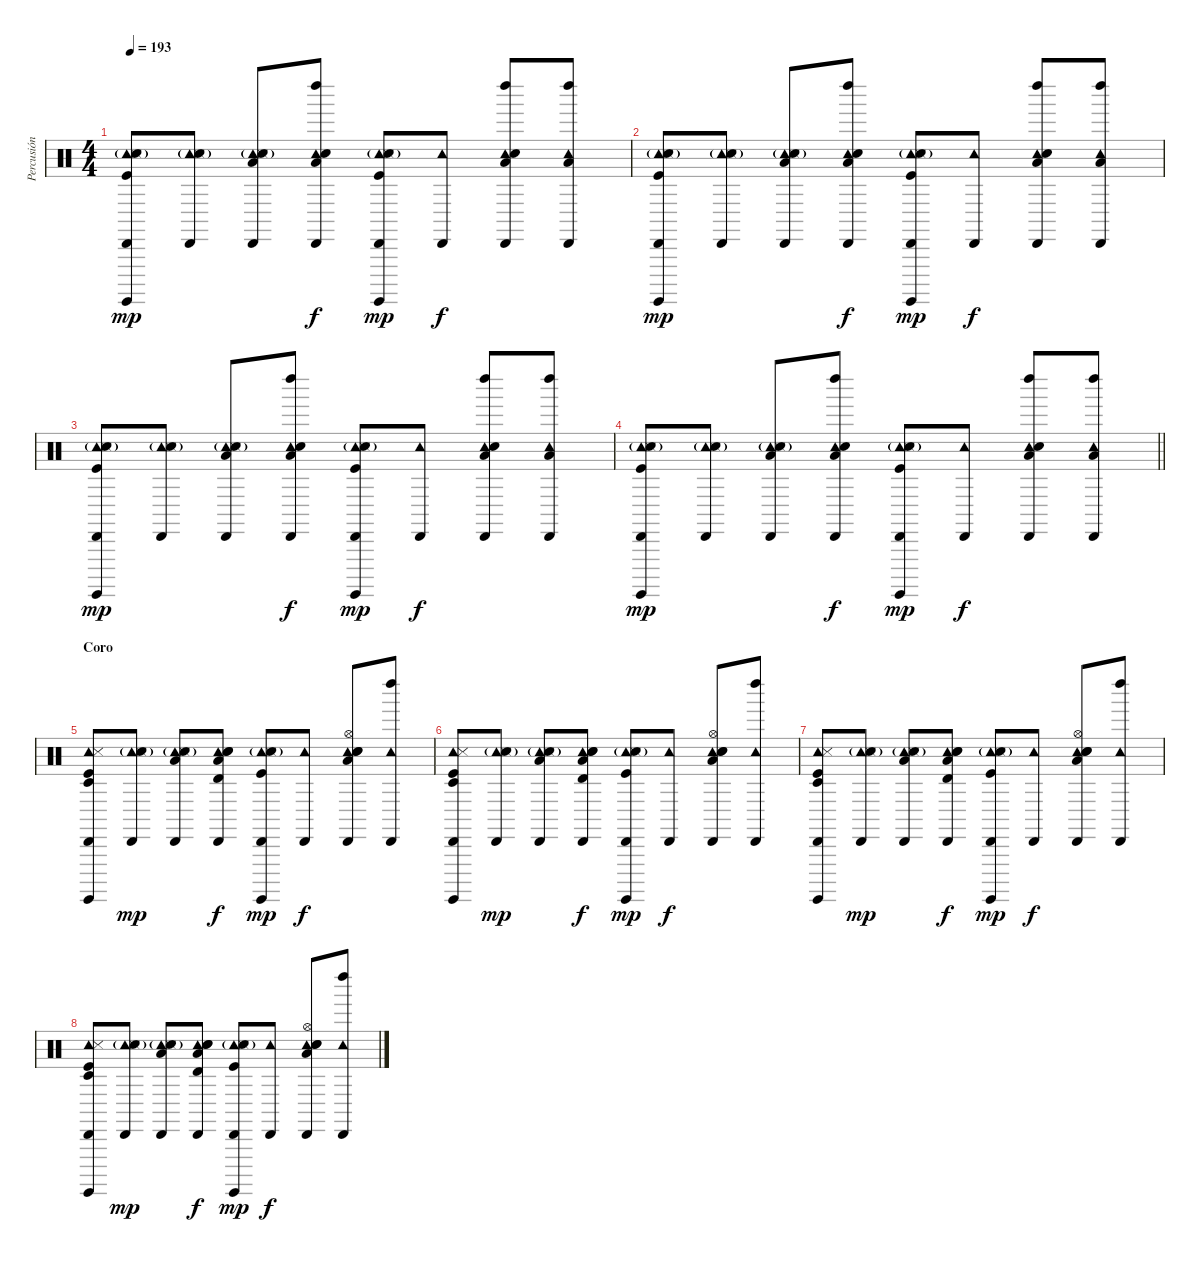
\track ("Percusión" "Percusión") {instrument percussion}
\staff {score}
\articulation defaults
\ts (4 4)
\tempo 193
\clef neutral
\ks c
("Cabasa (hit)" "Tambourine (hit)" "Hand Clap (hit)"{g} "Metronome (hit)" "Surdo (hit)" "Kick (hit)").8{dy mp} ("Cabasa (hit)" "Tambourine (hit)" "Hand Clap (hit)"{g} "Metronome (hit)").8 ("Cabasa (hit)" "Tambourine (hit)" "Hand Clap (hit)"{g} "Metronome (hit)" "Low Tom (hit)").8 ("Cabasa (hit)" "Tambourine (hit)" "Left Maraca (hit)" "Low Tom (hit)" "Electric Snare (hit)").8{dy f} ("Cabasa (hit)" "Tambourine (hit)" "Hand Clap (hit)"{g} "Metronome (hit)" "Surdo (hit)" "Kick (hit)").8{dy mp} ("Cabasa (hit)" "Tambourine (hit)").8{dy f} ("Cabasa (hit)" "Tambourine (hit)" "Left Maraca (hit)" "Low Tom (hit)" "Electric Snare (hit)").8 ("Cabasa (hit)" "Tambourine (hit)" "Left Maraca (hit)" "Low Tom (hit)").8 |
("Cabasa (hit)" "Tambourine (hit)" "Hand Clap (hit)"{g} "Metronome (hit)" "Surdo (hit)" "Kick (hit)").8{dy mp} ("Cabasa (hit)" "Tambourine (hit)" "Hand Clap (hit)"{g} "Metronome (hit)").8 ("Cabasa (hit)" "Tambourine (hit)" "Hand Clap (hit)"{g} "Metronome (hit)" "Low Tom (hit)").8 ("Cabasa (hit)" "Tambourine (hit)" "Left Maraca (hit)" "Low Tom (hit)" "Electric Snare (hit)").8{dy f} ("Cabasa (hit)" "Tambourine (hit)" "Hand Clap (hit)"{g} "Metronome (hit)" "Surdo (hit)" "Kick (hit)").8{dy mp} ("Cabasa (hit)" "Tambourine (hit)").8{dy f} ("Cabasa (hit)" "Tambourine (hit)" "Left Maraca (hit)" "Low Tom (hit)" "Electric Snare (hit)").8 ("Cabasa (hit)" "Tambourine (hit)" "Left Maraca (hit)" "Low Tom (hit)").8 |
("Cabasa (hit)" "Tambourine (hit)" "Hand Clap (hit)"{g} "Metronome (hit)" "Surdo (hit)" "Kick (hit)").8{dy mp} ("Cabasa (hit)" "Tambourine (hit)" "Hand Clap (hit)"{g} "Metronome (hit)").8 ("Cabasa (hit)" "Tambourine (hit)" "Hand Clap (hit)"{g} "Metronome (hit)" "Low Tom (hit)").8 ("Cabasa (hit)" "Tambourine (hit)" "Left Maraca (hit)" "Low Tom (hit)" "Electric Snare (hit)").8{dy f} ("Cabasa (hit)" "Tambourine (hit)" "Hand Clap (hit)"{g} "Metronome (hit)" "Surdo (hit)" "Kick (hit)").8{dy mp} ("Cabasa (hit)" "Tambourine (hit)").8{dy f} ("Cabasa (hit)" "Tambourine (hit)" "Left Maraca (hit)" "Low Tom (hit)" "Electric Snare (hit)").8 ("Cabasa (hit)" "Tambourine (hit)" "Left Maraca (hit)" "Low Tom (hit)").8 |
\barLineRight lightlight
("Cabasa (hit)" "Tambourine (hit)" "Hand Clap (hit)"{g} "Metronome (hit)" "Surdo (hit)" "Kick (hit)").8{dy mp} ("Cabasa (hit)" "Tambourine (hit)" "Hand Clap (hit)"{g} "Metronome (hit)").8 ("Cabasa (hit)" "Tambourine (hit)" "Hand Clap (hit)"{g} "Metronome (hit)" "Low Tom (hit)").8 ("Cabasa (hit)" "Tambourine (hit)" "Left Maraca (hit)" "Low Tom (hit)" "Electric Snare (hit)").8{dy f} ("Cabasa (hit)" "Tambourine (hit)" "Hand Clap (hit)"{g} "Metronome (hit)" "Surdo (hit)" "Kick (hit)").8{dy mp} ("Cabasa (hit)" "Tambourine (hit)").8{dy f} ("Cabasa (hit)" "Tambourine (hit)" "Left Maraca (hit)" "Low Tom (hit)" "Electric Snare (hit)").8 ("Cabasa (hit)" "Tambourine (hit)" "Left Maraca (hit)" "Low Tom (hit)").8 |
\section ("" "Coro")
("Cabasa (hit)" "Tambourine (hit)" "Timbale low (hit)" "Metronome (hit)" "Surdo (hit)" "Kick (hit)").8 ("Cabasa (hit)" "Tambourine (hit)" "Hand Clap (hit)"{g} "Metronome (hit)").8{dy mp} ("Cabasa (hit)" "Tambourine (hit)" "Hand Clap (hit)"{g} "Metronome (hit)" "Low Tom (hit)").8 ("Cabasa (hit)" "Tambourine (hit)" "Timbale high (hit)" "Snare (hit) 2" "Low Tom (hit)" "Electric Snare (hit)").8{dy f} ("Cabasa (hit)" "Tambourine (hit)" "Hand Clap (hit)"{g} "Metronome (hit)" "Surdo (hit)" "Kick (hit)").8{dy mp} ("Cabasa (hit)" "Tambourine (hit)").8{dy f} ("Cabasa (hit)" "Tambourine (hit)" "Hi-Hat (open)" "Snare (hit) 2" "Low Tom (hit)" "Electric Snare (hit)").8 ("Cabasa (hit)" "Tambourine (hit)" "Left Maraca (hit)").8 |
("Cabasa (hit)" "Tambourine (hit)" "Timbale low (hit)" "Metronome (hit)" "Surdo (hit)" "Kick (hit)").8 ("Cabasa (hit)" "Tambourine (hit)" "Hand Clap (hit)"{g} "Metronome (hit)").8{dy mp} ("Cabasa (hit)" "Tambourine (hit)" "Hand Clap (hit)"{g} "Metronome (hit)" "Low Tom (hit)").8 ("Cabasa (hit)" "Tambourine (hit)" "Timbale high (hit)" "Snare (hit) 2" "Low Tom (hit)" "Electric Snare (hit)").8{dy f} ("Cabasa (hit)" "Tambourine (hit)" "Hand Clap (hit)"{g} "Metronome (hit)" "Surdo (hit)" "Kick (hit)").8{dy mp} ("Cabasa (hit)" "Tambourine (hit)").8{dy f} ("Cabasa (hit)" "Tambourine (hit)" "Hi-Hat (open)" "Snare (hit) 2" "Low Tom (hit)" "Electric Snare (hit)").8 ("Cabasa (hit)" "Tambourine (hit)" "Left Maraca (hit)").8 |
("Cabasa (hit)" "Tambourine (hit)" "Timbale low (hit)" "Metronome (hit)" "Surdo (hit)" "Kick (hit)").8 ("Cabasa (hit)" "Tambourine (hit)" "Hand Clap (hit)"{g} "Metronome (hit)").8{dy mp} ("Cabasa (hit)" "Tambourine (hit)" "Hand Clap (hit)"{g} "Metronome (hit)" "Low Tom (hit)").8 ("Cabasa (hit)" "Tambourine (hit)" "Timbale high (hit)" "Snare (hit) 2" "Low Tom (hit)" "Electric Snare (hit)").8{dy f} ("Cabasa (hit)" "Tambourine (hit)" "Hand Clap (hit)"{g} "Metronome (hit)" "Surdo (hit)" "Kick (hit)").8{dy mp} ("Cabasa (hit)" "Tambourine (hit)").8{dy f} ("Cabasa (hit)" "Tambourine (hit)" "Hi-Hat (open)" "Snare (hit) 2" "Low Tom (hit)" "Electric Snare (hit)").8 ("Cabasa (hit)" "Tambourine (hit)" "Left Maraca (hit)").8 |
("Cabasa (hit)" "Tambourine (hit)" "Timbale low (hit)" "Metronome (hit)" "Surdo (hit)" "Kick (hit)").8 ("Cabasa (hit)" "Tambourine (hit)" "Hand Clap (hit)"{g} "Metronome (hit)").8{dy mp} ("Cabasa (hit)" "Tambourine (hit)" "Hand Clap (hit)"{g} "Metronome (hit)" "Low Tom (hit)").8 ("Cabasa (hit)" "Tambourine (hit)" "Timbale high (hit)" "Snare (hit) 2" "Low Tom (hit)" "Electric Snare (hit)").8{dy f} ("Cabasa (hit)" "Tambourine (hit)" "Hand Clap (hit)"{g} "Metronome (hit)" "Surdo (hit)" "Kick (hit)").8{dy mp} ("Cabasa (hit)" "Tambourine (hit)").8{dy f} ("Cabasa (hit)" "Tambourine (hit)" "Hi-Hat (open)" "Snare (hit) 2" "Low Tom (hit)" "Electric Snare (hit)").8 ("Cabasa (hit)" "Tambourine (hit)" "Left Maraca (hit)").8
